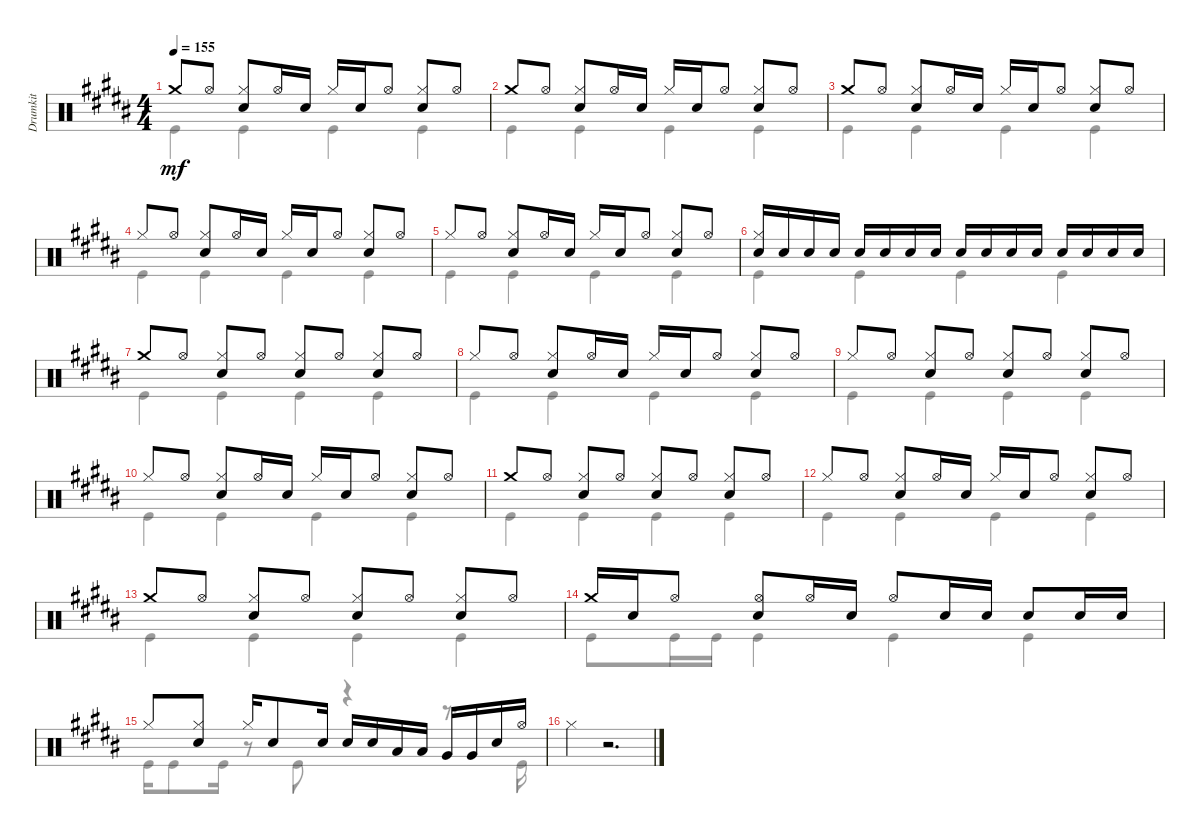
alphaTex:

\track ("Drumkit" "Drumkit") {instrument percussion}
\staff {score}
\articulation defaults
\voice
\ts (4 4)
\tempo 155
\clef neutral
\ks b "Crash medium (hit)".8{dy mf} "Hi-Hat (open)".8
("Hi-Hat (closed)" "Snare (hit) 2").8 "Hi-Hat (open)".16 "Snare (hit) 2".16 "Hi-Hat (closed)".16 "Snare (hit) 2".16 "Hi-Hat (open)".8 ("Hi-Hat (closed)" "Snare (hit) 2").8 "Hi-Hat (open)".8 |
"Crash medium (hit)".8 "Hi-Hat (open)".8 ("Hi-Hat (closed)" "Snare (hit) 2").8 "Hi-Hat (open)".16 "Snare (hit) 2".16 "Hi-Hat (closed)".16 "Snare (hit) 2".16 "Hi-Hat (open)".8 ("Hi-Hat (closed)" "Snare (hit) 2").8 "Hi-Hat (open)".8 |
"Crash medium (hit)".8 "Hi-Hat (open)".8 ("Hi-Hat (closed)" "Snare (hit) 2").8 "Hi-Hat (open)".16 "Snare (hit) 2".16 "Hi-Hat (closed)".16 "Snare (hit) 2".16 "Hi-Hat (open)".8 ("Hi-Hat (closed)" "Snare (hit) 2").8 "Hi-Hat (open)".8 |
"Hi-Hat (closed)".8 "Hi-Hat (open)".8 ("Hi-Hat (closed)" "Snare (hit) 2").8 "Hi-Hat (open)".16 "Snare (hit) 2".16 "Hi-Hat (closed)".16 "Snare (hit) 2".16 "Hi-Hat (open)".8 ("Hi-Hat (closed)" "Snare (hit) 2").8 "Hi-Hat (open)".8 |
"Hi-Hat (closed)".8 "Hi-Hat (open)".8 ("Hi-Hat (closed)" "Snare (hit) 2").8 "Hi-Hat (open)".16 "Snare (hit) 2".16 "Hi-Hat (closed)".16 "Snare (hit) 2".16 "Hi-Hat (open)".8 ("Hi-Hat (closed)" "Snare (hit) 2").8 "Hi-Hat (open)".8 |
("Hi-Hat (closed)" "Snare (hit) 2").16 "Snare (hit) 2".16 "Snare (hit) 2".16 "Snare (hit) 2".16 "Snare (hit) 2".16 "Snare (hit) 2".16 "Snare (hit) 2".16 "Snare (hit) 2".16 "Snare (hit) 2".16 "Snare (hit) 2".16 "Snare (hit) 2".16 "Snare (hit) 2".16 "Snare (hit) 2".16 "Snare (hit) 2".16 "Snare (hit) 2".16 "Snare (hit) 2".16 |
"Crash medium (hit)".8 "Hi-Hat (open)".8 ("Snare (hit) 2" "Hi-Hat (closed)").8 "Hi-Hat (open)".8 ("Snare (hit) 2" "Hi-Hat (closed)").8 "Hi-Hat (open)".8 ("Snare (hit) 2" "Hi-Hat (closed)").8 "Hi-Hat (open)".8 |
"Hi-Hat (closed)".8 "Hi-Hat (open)".8 ("Hi-Hat (closed)" "Snare (hit) 2").8 "Hi-Hat (open)".16 "Snare (hit) 2".16 "Hi-Hat (closed)".16 "Snare (hit) 2".16 "Hi-Hat (open)".8 ("Hi-Hat (closed)" "Snare (hit) 2").8 "Hi-Hat (open)".8 |
"Hi-Hat (closed)".8 "Hi-Hat (open)".8 ("Snare (hit) 2" "Hi-Hat (closed)").8 "Hi-Hat (open)".8 ("Snare (hit) 2" "Hi-Hat (closed)").8 "Hi-Hat (open)".8 ("Snare (hit) 2" "Hi-Hat (closed)").8 "Hi-Hat (open)".8 |
"Hi-Hat (closed)".8 "Hi-Hat (open)".8 ("Hi-Hat (closed)" "Snare (hit) 2").8 "Hi-Hat (open)".16 "Snare (hit) 2".16 "Hi-Hat (closed)".16 "Snare (hit) 2".16 "Hi-Hat (open)".8 ("Hi-Hat (closed)" "Snare (hit) 2").8 "Hi-Hat (open)".8 |
"Crash medium (hit)".8 "Hi-Hat (open)".8 ("Snare (hit) 2" "Hi-Hat (closed)").8 "Hi-Hat (open)".8 ("Snare (hit) 2" "Hi-Hat (closed)").8 "Hi-Hat (open)".8 ("Snare (hit) 2" "Hi-Hat (closed)").8 "Hi-Hat (open)".8 |
"Hi-Hat (closed)".8 "Hi-Hat (open)".8 ("Hi-Hat (closed)" "Snare (hit) 2").8 "Hi-Hat (open)".16 "Snare (hit) 2".16 "Hi-Hat (closed)".16 "Snare (hit) 2".16 "Hi-Hat (open)".8 ("Hi-Hat (closed)" "Snare (hit) 2").8 "Hi-Hat (open)".8 |
"Crash medium (hit)".8 "Hi-Hat (open)".8 ("Snare (hit) 2" "Hi-Hat (closed)").8 "Hi-Hat (open)".8 ("Snare (hit) 2" "Hi-Hat (closed)").8 "Hi-Hat (open)".8 ("Snare (hit) 2" "Hi-Hat (closed)").8 "Hi-Hat (open)".8 |
"Crash medium (hit)".16 "Snare (hit) 2".16 "Hi-Hat (open)".8 ("Hi-Hat (open)" "Snare (hit) 2").8 "Hi-Hat (open)".16 "Snare (hit) 2".16 "Hi-Hat (open)".8 "Snare (hit) 2".16 "Snare (hit) 2".16 "Snare (hit) 2".8 "Snare (hit) 2".16 "Snare (hit) 2".16 |
"Hi-Hat (closed)".8 ("Hi-Hat (closed)" "Snare (hit) 2").8 "Hi-Hat (closed)".16 "Snare (hit) 2".8 "Snare (hit) 2".16 "Snare (hit) 2".16 "Snare (hit) 2".16 "Low Tom (hit)".16 "Low Tom (hit)".16 "Very Low Tom (hit)".16 "Very Low Tom (hit)".16 "Snare (hit) 2".16 "Hi-Hat (open)".16 |
"Hi-Hat (closed)".4 r.2{d}
\voice
\clef neutral
\ottava regular
\simile none
\ks b "Kick (hit)".4{dy mf} "Kick (hit)".4 "Kick (hit)".4 "Kick (hit)".4
|
"Kick (hit)".4 "Kick (hit)".4 "Kick (hit)".4 "Kick (hit)".4 |
"Kick (hit)".4 "Kick (hit)".4 "Kick (hit)".4 "Kick (hit)".4 |
"Kick (hit)".4 "Kick (hit)".4 "Kick (hit)".4 "Kick (hit)".4 |
"Kick (hit)".4 "Kick (hit)".4 "Kick (hit)".4 "Kick (hit)".4 |
"Kick (hit)".4 "Kick (hit)".4 "Kick (hit)".4 "Kick (hit)".4 |
"Kick (hit)".4 "Kick (hit)".4 "Kick (hit)".4 "Kick (hit)".4 |
"Kick (hit)".4 "Kick (hit)".4 "Kick (hit)".4 "Kick (hit)".4 |
"Kick (hit)".4 "Kick (hit)".4 "Kick (hit)".4 "Kick (hit)".4 |
"Kick (hit)".4 "Kick (hit)".4 "Kick (hit)".4 "Kick (hit)".4 |
"Kick (hit)".4 "Kick (hit)".4 "Kick (hit)".4 "Kick (hit)".4 |
"Kick (hit)".4 "Kick (hit)".4 "Kick (hit)".4 "Kick (hit)".4 |
"Kick (hit)".4 "Kick (hit)".4 "Kick (hit)".4 "Kick (hit)".4 |
"Kick (hit)".8 "Kick (hit)".16 "Kick (hit)".16 "Kick (hit)".4 "Kick (hit)".4 "Kick (hit)".4 |
"Kick (hit)".16 "Kick (hit)".8 "Kick (hit)".16 r.8 "Kick (hit)".8 r.4 r.8{d} "Kick (hit)".16 |
